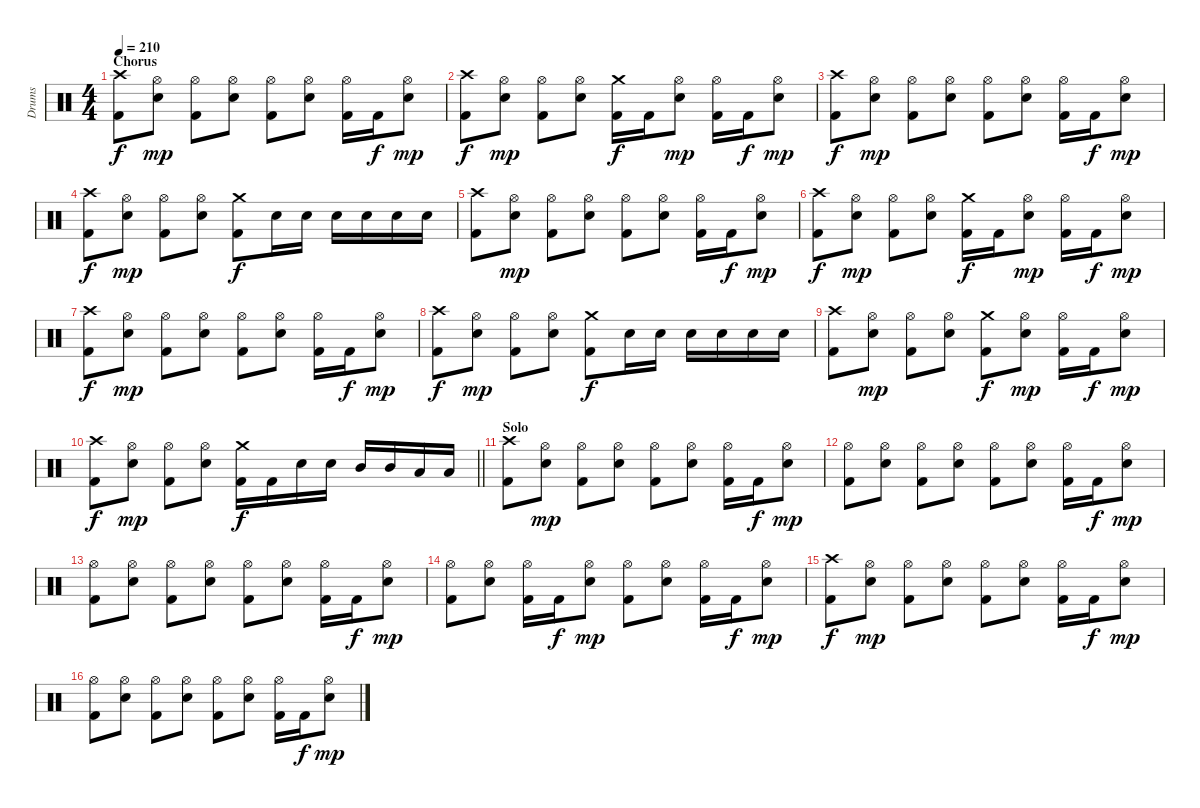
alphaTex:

\track ("Drums" "Drums") {instrument percussion}
\staff {score}
\articulation defaults
\ts (4 4)
\section ("" "Chorus")
\tempo 210
\clef neutral
\ks c
("Crash high (hit)" "Kick (hit) 2").8{dy f} ("Hi-Hat (open)" "Snare (hit) 2").8{dy mp} ("Hi-Hat (open)" "Kick (hit) 2").8 ("Hi-Hat (open)" "Snare (hit) 2").8 ("Hi-Hat (open)" "Kick (hit) 2").8 ("Hi-Hat (open)" "Snare (hit) 2").8 ("Hi-Hat (open)" "Kick (hit) 2").16 "Kick (hit) 2".16{dy f} ("Hi-Hat (open)" "Snare (hit) 2").8{dy mp} |
("Crash high (hit)" "Kick (hit) 2").8{dy f} ("Hi-Hat (open)" "Snare (hit) 2").8{dy mp} ("Hi-Hat (open)" "Kick (hit) 2").8 ("Hi-Hat (open)" "Snare (hit) 2").8 ("Crash medium (hit)" "Kick (hit) 2").16{dy f} "Kick (hit) 2".16 ("Hi-Hat (open)" "Snare (hit) 2").8{dy mp} ("Hi-Hat (open)" "Kick (hit) 2").16 "Kick (hit) 2".16{dy f} ("Hi-Hat (open)" "Snare (hit) 2").8{dy mp} |
("Crash high (hit)" "Kick (hit) 2").8{dy f} ("Hi-Hat (open)" "Snare (hit) 2").8{dy mp} ("Hi-Hat (open)" "Kick (hit) 2").8 ("Hi-Hat (open)" "Snare (hit) 2").8 ("Hi-Hat (open)" "Kick (hit) 2").8 ("Hi-Hat (open)" "Snare (hit) 2").8 ("Hi-Hat (open)" "Kick (hit) 2").16 "Kick (hit) 2".16{dy f} ("Hi-Hat (open)" "Snare (hit) 2").8{dy mp} |
("Crash high (hit)" "Kick (hit) 2").8{dy f} ("Hi-Hat (open)" "Snare (hit) 2").8{dy mp} ("Hi-Hat (open)" "Kick (hit) 2").8 ("Hi-Hat (open)" "Snare (hit) 2").8 ("Crash medium (hit)" "Kick (hit) 2").8{dy f} "Snare (hit) 2".16 "Snare (hit) 2".16 "Snare (hit) 2".16 "Snare (hit) 2".16 "Snare (hit) 2".16 "Snare (hit) 2".16 |
("Crash high (hit)" "Kick (hit) 2").8 ("Hi-Hat (open)" "Snare (hit) 2").8{dy mp} ("Hi-Hat (open)" "Kick (hit) 2").8 ("Hi-Hat (open)" "Snare (hit) 2").8 ("Hi-Hat (open)" "Kick (hit) 2").8 ("Hi-Hat (open)" "Snare (hit) 2").8 ("Hi-Hat (open)" "Kick (hit) 2").16 "Kick (hit) 2".16{dy f} ("Hi-Hat (open)" "Snare (hit) 2").8{dy mp} |
("Crash high (hit)" "Kick (hit) 2").8{dy f} ("Hi-Hat (open)" "Snare (hit) 2").8{dy mp} ("Hi-Hat (open)" "Kick (hit) 2").8 ("Hi-Hat (open)" "Snare (hit) 2").8 ("Crash medium (hit)" "Kick (hit) 2").16{dy f} "Kick (hit) 2".16 ("Hi-Hat (open)" "Snare (hit) 2").8{dy mp} ("Hi-Hat (open)" "Kick (hit) 2").16 "Kick (hit) 2".16{dy f} ("Hi-Hat (open)" "Snare (hit) 2").8{dy mp} |
("Crash high (hit)" "Kick (hit) 2").8{dy f} ("Hi-Hat (open)" "Snare (hit) 2").8{dy mp} ("Hi-Hat (open)" "Kick (hit) 2").8 ("Hi-Hat (open)" "Snare (hit) 2").8 ("Hi-Hat (open)" "Kick (hit) 2").8 ("Hi-Hat (open)" "Snare (hit) 2").8 ("Hi-Hat (open)" "Kick (hit) 2").16 "Kick (hit) 2".16{dy f} ("Hi-Hat (open)" "Snare (hit) 2").8{dy mp} |
("Crash high (hit)" "Kick (hit) 2").8{dy f} ("Hi-Hat (open)" "Snare (hit) 2").8{dy mp} ("Hi-Hat (open)" "Kick (hit) 2").8 ("Hi-Hat (open)" "Snare (hit) 2").8 ("Crash medium (hit)" "Kick (hit) 2").8{dy f} "Snare (hit) 2".16 "Snare (hit) 2".16 "Snare (hit) 2".16 "Snare (hit) 2".16 "Snare (hit) 2".16 "Snare (hit) 2".16 |
("Crash high (hit)" "Kick (hit) 2").8 ("Hi-Hat (open)" "Snare (hit) 2").8{dy mp} ("Hi-Hat (open)" "Kick (hit) 2").8 ("Hi-Hat (open)" "Snare (hit) 2").8 ("Crash medium (hit)" "Kick (hit) 2").8{dy f} ("Hi-Hat (open)" "Snare (hit) 2").8{dy mp} ("Hi-Hat (open)" "Kick (hit) 2").16 "Kick (hit) 2".16{dy f} ("Hi-Hat (open)" "Snare (hit) 2").8{dy mp} |
\barLineRight lightlight
("Crash high (hit)" "Kick (hit) 2").8{dy f} ("Hi-Hat (open)" "Snare (hit) 2").8{dy mp} ("Hi-Hat (open)" "Kick (hit) 2").8 ("Hi-Hat (open)" "Snare (hit) 2").8 ("Crash medium (hit)" "Kick (hit) 2").16{dy f} "Kick (hit) 2".16 "Snare (hit) 2".16 "Snare (hit) 2".16 "Mid Tom (hit)".16 "Mid Tom (hit)".16 "Low Tom (hit)".16 "Low Tom (hit)".16 |
\section ("" "Solo")
("Crash high (hit)" "Kick (hit) 2").8 ("Hi-Hat (open)" "Snare (hit) 2").8{dy mp} ("Hi-Hat (open)" "Kick (hit) 2").8 ("Hi-Hat (open)" "Snare (hit) 2").8 ("Hi-Hat (open)" "Kick (hit) 2").8 ("Hi-Hat (open)" "Snare (hit) 2").8 ("Hi-Hat (open)" "Kick (hit) 2").16 "Kick (hit) 2".16{dy f} ("Hi-Hat (open)" "Snare (hit) 2").8{dy mp} |
("Hi-Hat (open)" "Kick (hit) 2").8 ("Hi-Hat (open)" "Snare (hit) 2").8 ("Hi-Hat (open)" "Kick (hit) 2").8 ("Hi-Hat (open)" "Snare (hit) 2").8 ("Hi-Hat (open)" "Kick (hit) 2").8 ("Hi-Hat (open)" "Snare (hit) 2").8 ("Hi-Hat (open)" "Kick (hit) 2").16 "Kick (hit) 2".16{dy f} ("Hi-Hat (open)" "Snare (hit) 2").8{dy mp} |
("Hi-Hat (open)" "Kick (hit) 2").8 ("Hi-Hat (open)" "Snare (hit) 2").8 ("Hi-Hat (open)" "Kick (hit) 2").8 ("Hi-Hat (open)" "Snare (hit) 2").8 ("Hi-Hat (open)" "Kick (hit) 2").8 ("Hi-Hat (open)" "Snare (hit) 2").8 ("Hi-Hat (open)" "Kick (hit) 2").16 "Kick (hit) 2".16{dy f} ("Hi-Hat (open)" "Snare (hit) 2").8{dy mp} |
("Hi-Hat (open)" "Kick (hit) 2").8 ("Hi-Hat (open)" "Snare (hit) 2").8 ("Hi-Hat (open)" "Kick (hit) 2").16 "Kick (hit) 2".16{dy f} ("Hi-Hat (open)" "Snare (hit) 2").8{dy mp} ("Hi-Hat (open)" "Kick (hit) 2").8 ("Hi-Hat (open)" "Snare (hit) 2").8 ("Hi-Hat (open)" "Kick (hit) 2").16 "Kick (hit) 2".16{dy f} ("Hi-Hat (open)" "Snare (hit) 2").8{dy mp} |
("Crash high (hit)" "Kick (hit) 2").8{dy f} ("Hi-Hat (open)" "Snare (hit) 2").8{dy mp} ("Hi-Hat (open)" "Kick (hit) 2").8 ("Hi-Hat (open)" "Snare (hit) 2").8 ("Hi-Hat (open)" "Kick (hit) 2").8 ("Hi-Hat (open)" "Snare (hit) 2").8 ("Hi-Hat (open)" "Kick (hit) 2").16 "Kick (hit) 2".16{dy f} ("Hi-Hat (open)" "Snare (hit) 2").8{dy mp} |
("Hi-Hat (open)" "Kick (hit) 2").8 ("Hi-Hat (open)" "Snare (hit) 2").8 ("Hi-Hat (open)" "Kick (hit) 2").8 ("Hi-Hat (open)" "Snare (hit) 2").8 ("Hi-Hat (open)" "Kick (hit) 2").8 ("Hi-Hat (open)" "Snare (hit) 2").8 ("Hi-Hat (open)" "Kick (hit) 2").16 "Kick (hit) 2".16{dy f} ("Hi-Hat (open)" "Snare (hit) 2").8{dy mp}
